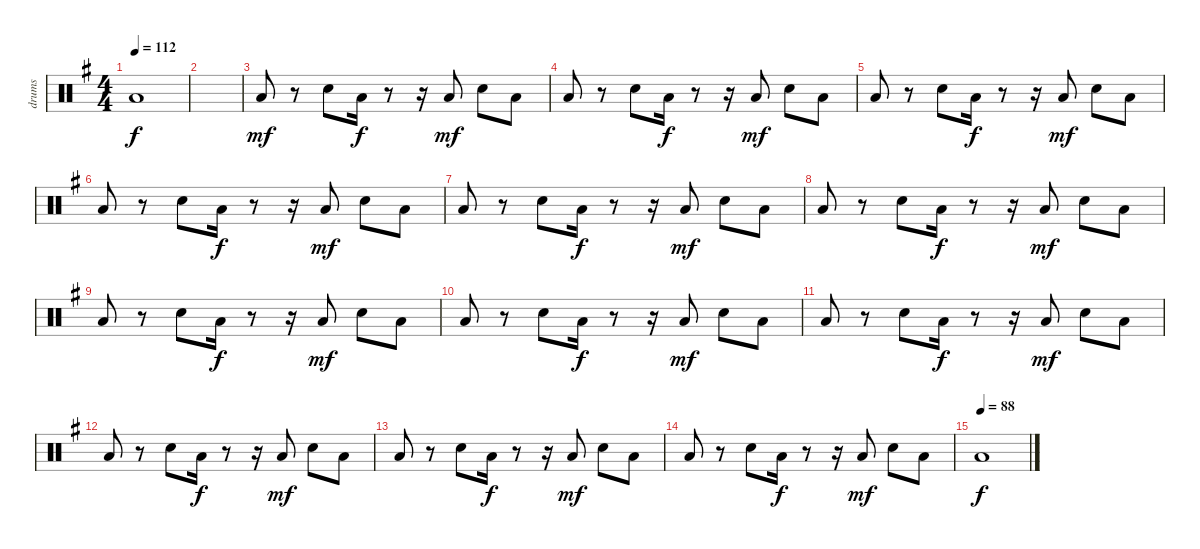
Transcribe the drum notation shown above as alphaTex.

\track ("drums" "drums") {instrument percussion}
\staff {score}
\articulation defaults
\ts (4 4)
\tempo 112
\clef neutral
\ks g "Low Floor Tom (hit)".1{dy f}
|
|
"Low Floor Tom (hit)".8{dy mf} r.8 "Snare (hit) 2".8 "Low Floor Tom (hit)".16{dy f} r.8 r.16 "Low Floor Tom (hit)".8{dy mf} "Snare (hit) 2".8 "Low Floor Tom (hit)".8 |
"Low Floor Tom (hit)".8 r.8 "Snare (hit) 2".8 "Low Floor Tom (hit)".16{dy f} r.8 r.16 "Low Floor Tom (hit)".8{dy mf} "Snare (hit) 2".8 "Low Floor Tom (hit)".8 |
"Low Floor Tom (hit)".8 r.8 "Snare (hit) 2".8 "Low Floor Tom (hit)".16{dy f} r.8 r.16 "Low Floor Tom (hit)".8{dy mf} "Snare (hit) 2".8 "Low Floor Tom (hit)".8 |
"Low Floor Tom (hit)".8 r.8 "Snare (hit) 2".8 "Low Floor Tom (hit)".16{dy f} r.8 r.16 "Low Floor Tom (hit)".8{dy mf} "Snare (hit) 2".8 "Low Floor Tom (hit)".8 |
"Low Floor Tom (hit)".8 r.8 "Snare (hit) 2".8 "Low Floor Tom (hit)".16{dy f} r.8 r.16 "Low Floor Tom (hit)".8{dy mf} "Snare (hit) 2".8 "Low Floor Tom (hit)".8 |
"Low Floor Tom (hit)".8 r.8 "Snare (hit) 2".8 "Low Floor Tom (hit)".16{dy f} r.8 r.16 "Low Floor Tom (hit)".8{dy mf} "Snare (hit) 2".8 "Low Floor Tom (hit)".8 |
"Low Floor Tom (hit)".8 r.8 "Snare (hit) 2".8 "Low Floor Tom (hit)".16{dy f} r.8 r.16 "Low Floor Tom (hit)".8{dy mf} "Snare (hit) 2".8 "Low Floor Tom (hit)".8 |
"Low Floor Tom (hit)".8 r.8 "Snare (hit) 2".8 "Low Floor Tom (hit)".16{dy f} r.8 r.16 "Low Floor Tom (hit)".8{dy mf} "Snare (hit) 2".8 "Low Floor Tom (hit)".8 |
"Low Floor Tom (hit)".8 r.8 "Snare (hit) 2".8 "Low Floor Tom (hit)".16{dy f} r.8 r.16 "Low Floor Tom (hit)".8{dy mf} "Snare (hit) 2".8 "Low Floor Tom (hit)".8 |
"Low Floor Tom (hit)".8 r.8 "Snare (hit) 2".8 "Low Floor Tom (hit)".16{dy f} r.8 r.16 "Low Floor Tom (hit)".8{dy mf} "Snare (hit) 2".8 "Low Floor Tom (hit)".8 |
"Low Floor Tom (hit)".8 r.8 "Snare (hit) 2".8 "Low Floor Tom (hit)".16{dy f} r.8 r.16 "Low Floor Tom (hit)".8{dy mf} "Snare (hit) 2".8 "Low Floor Tom (hit)".8 |
"Low Floor Tom (hit)".8 r.8 "Snare (hit) 2".8 "Low Floor Tom (hit)".16{dy f} r.8 r.16 "Low Floor Tom (hit)".8{dy mf} "Snare (hit) 2".8 "Low Floor Tom (hit)".8 |
\tempo (88)
"Low Floor Tom (hit)".1{dy f}
